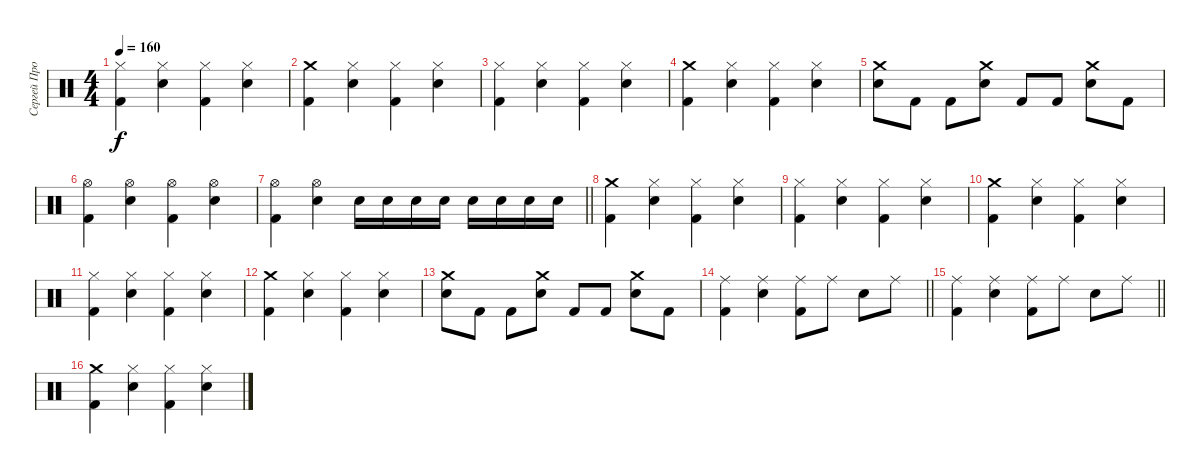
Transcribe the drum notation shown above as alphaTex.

\track ("Сергей Прокофьев" "Сергей Про") {instrument percussion}
\staff {score}
\articulation defaults
\ts (4 4)
\tempo 160
\clef neutral
\ks c
("Hi-Hat (closed)" "Kick (hit) 2").4{dy f} ("Hi-Hat (closed)" "Snare (hit) 2").4 ("Hi-Hat (closed)" "Kick (hit) 2").4 ("Hi-Hat (closed)" "Snare (hit) 2").4 |
("Crash medium (hit)" "Kick (hit) 2").4 ("Hi-Hat (closed)" "Snare (hit) 2").4 ("Hi-Hat (closed)" "Kick (hit) 2").4 ("Hi-Hat (closed)" "Snare (hit) 2").4 |
("Hi-Hat (closed)" "Kick (hit) 2").4 ("Hi-Hat (closed)" "Snare (hit) 2").4 ("Hi-Hat (closed)" "Kick (hit) 2").4 ("Hi-Hat (closed)" "Snare (hit) 2").4 |
("Crash medium (hit)" "Kick (hit) 2").4 ("Hi-Hat (closed)" "Snare (hit) 2").4 ("Hi-Hat (closed)" "Kick (hit) 2").4 ("Hi-Hat (closed)" "Snare (hit) 2").4 |
("Crash medium (hit)" "Snare (hit) 2").8 "Kick (hit) 2".8 "Kick (hit) 2".8 ("Crash medium (hit)" "Snare (hit) 2").8 "Kick (hit) 2".8 "Kick (hit) 2".8 ("Crash medium (hit)" "Snare (hit) 2").8 "Kick (hit) 2".8 |
("Hi-Hat (open)" "Kick (hit) 2").4 ("Hi-Hat (open)" "Snare (hit) 2").4 ("Hi-Hat (open)" "Kick (hit) 2").4 ("Hi-Hat (open)" "Snare (hit) 2").4 |
\barLineRight lightlight
("Hi-Hat (open)" "Kick (hit) 2").4 ("Hi-Hat (open)" "Snare (hit) 2").4 "Snare (hit) 2".16 "Snare (hit) 2".16 "Snare (hit) 2".16 "Snare (hit) 2".16 "Snare (hit) 2".16 "Snare (hit) 2".16 "Snare (hit) 2".16 "Snare (hit) 2".16 |
("Crash medium (hit)" "Kick (hit) 2").4 ("Hi-Hat (closed)" "Snare (hit) 2").4 ("Hi-Hat (closed)" "Kick (hit) 2").4 ("Hi-Hat (closed)" "Snare (hit) 2").4 |
("Hi-Hat (closed)" "Kick (hit) 2").4 ("Hi-Hat (closed)" "Snare (hit) 2").4 ("Hi-Hat (closed)" "Kick (hit) 2").4 ("Hi-Hat (closed)" "Snare (hit) 2").4 |
("Crash medium (hit)" "Kick (hit) 2").4 ("Hi-Hat (closed)" "Snare (hit) 2").4 ("Hi-Hat (closed)" "Kick (hit) 2").4 ("Hi-Hat (closed)" "Snare (hit) 2").4 |
("Hi-Hat (closed)" "Kick (hit) 2").4 ("Hi-Hat (closed)" "Snare (hit) 2").4 ("Hi-Hat (closed)" "Kick (hit) 2").4 ("Hi-Hat (closed)" "Snare (hit) 2").4 |
("Crash medium (hit)" "Kick (hit) 2").4 ("Hi-Hat (closed)" "Snare (hit) 2").4 ("Hi-Hat (closed)" "Kick (hit) 2").4 ("Hi-Hat (closed)" "Snare (hit) 2").4 |
("Crash medium (hit)" "Snare (hit) 2").8 "Kick (hit) 2".8 "Kick (hit) 2".8 ("Crash medium (hit)" "Snare (hit) 2").8 "Kick (hit) 2".8 "Kick (hit) 2".8 ("Crash medium (hit)" "Snare (hit) 2").8 "Kick (hit) 2".8 |
\barLineRight lightlight
("Ride (middle)" "Kick (hit) 2").4 ("Ride (middle)" "Snare (hit) 2").4 ("Ride (middle)" "Kick (hit) 2").8 "Ride (middle)".8 "Snare (hit) 2".8 "Ride (middle)".8 |
\barLineRight lightlight
("Ride (middle)" "Kick (hit) 2").4 ("Ride (middle)" "Snare (hit) 2").4 ("Ride (middle)" "Kick (hit) 2").8 "Ride (middle)".8 "Snare (hit) 2".8 "Ride (middle)".8 |
("Crash medium (hit)" "Kick (hit) 2").4 ("Hi-Hat (closed)" "Snare (hit) 2").4 ("Hi-Hat (closed)" "Kick (hit) 2").4 ("Hi-Hat (closed)" "Snare (hit) 2").4
